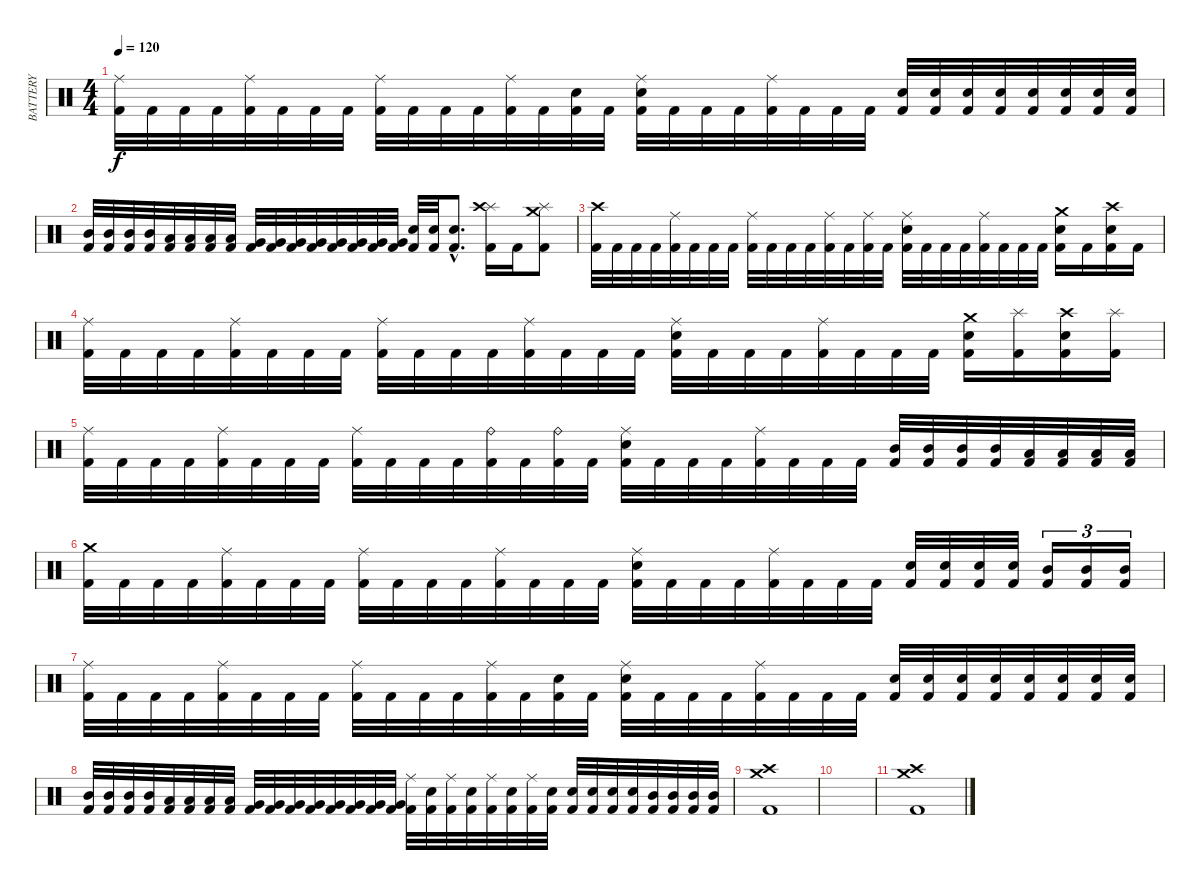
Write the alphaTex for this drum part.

\track ("BATTERY" "BATTERY") {instrument percussion}
\staff {score}
\articulation defaults
\ts (4 4)
\tempo 120
\clef neutral
\ks c
("Kick (hit) 2" "Ride (middle)").32{dy f} "Kick (hit) 2".32 "Kick (hit) 2".32 "Kick (hit) 2".32 ("Kick (hit) 2" "Ride (middle)").32 "Kick (hit) 2".32 "Kick (hit) 2".32 "Kick (hit) 2".32 ("Kick (hit) 2" "Ride (middle)").32 "Kick (hit) 2".32 "Kick (hit) 2".32 "Kick (hit) 2".32 ("Kick (hit) 2" "Ride (middle)").32 "Kick (hit) 2".32 ("Kick (hit) 2" "Snare (hit) 2").32 "Kick (hit) 2".32 ("Kick (hit) 2" "Snare (hit) 2" "Ride (middle)").32 "Kick (hit) 2".32 "Kick (hit) 2".32 "Kick (hit) 2".32 ("Kick (hit) 2" "Ride (middle)").32 "Kick (hit) 2".32 "Kick (hit) 2".32 "Kick (hit) 2".32 ("Kick (hit) 2" "Snare (hit) 2").32 ("Kick (hit) 2" "Snare (hit) 2").32 ("Kick (hit) 2" "Snare (hit) 2").32 ("Kick (hit) 2" "Snare (hit) 2").32 ("Kick (hit) 2" "Snare (hit) 2").32 ("Kick (hit) 2" "Snare (hit) 2").32 ("Kick (hit) 2" "Snare (hit) 2").32 ("Kick (hit) 2" "Snare (hit) 2").32 |
("Kick (hit) 2" "Mid Tom (hit)").32 ("Kick (hit) 2" "Mid Tom (hit)").32 ("Kick (hit) 2" "Mid Tom (hit)").32 ("Kick (hit) 2" "Mid Tom (hit)").32 ("Kick (hit) 2" "Low Tom (hit)").32 ("Kick (hit) 2" "Low Tom (hit)").32 ("Kick (hit) 2" "Low Tom (hit)").32 ("Kick (hit) 2" "Low Tom (hit)").32 ("Kick (hit) 2" "Very Low Tom (hit)").32 ("Kick (hit) 2" "Very Low Tom (hit)").32 ("Kick (hit) 2" "Very Low Tom (hit)").32 ("Kick (hit) 2" "Very Low Tom (hit)").32 ("Kick (hit) 2" "Very Low Tom (hit)").32 ("Kick (hit) 2" "Very Low Tom (hit)").32 ("Kick (hit) 2" "Very Low Tom (hit)").32 ("Kick (hit) 2" "Very Low Tom (hit)").32 ("Kick (hit) 2" "Snare (hit) 2").32 ("Kick (hit) 2" "Snare (hit) 2").32 ("Kick (hit) 2"{hac} "Snare (hit) 2"{hac}).8{d} ("Kick (hit) 2" "Splash (hit)" "Crash high (hit)").16 "Kick (hit) 2".16 ("Kick (hit) 2" "Splash (hit)" "Crash medium (hit)").8 |
("Kick (hit) 2" "Crash high (hit)").32 "Kick (hit) 2".32 "Kick (hit) 2".32 "Kick (hit) 2".32 ("Kick (hit) 2" "Ride (middle)").32 "Kick (hit) 2".32 "Kick (hit) 2".32 "Kick (hit) 2".32 ("Kick (hit) 2" "Ride (middle)").32 "Kick (hit) 2".32 "Kick (hit) 2".32 "Kick (hit) 2".32 ("Kick (hit) 2" "Ride (middle)").32 "Kick (hit) 2".32 ("Kick (hit) 2" "Ride (middle)").32 "Kick (hit) 2".32 ("Kick (hit) 2" "Snare (hit) 2" "Ride (middle)").32 "Kick (hit) 2".32 "Kick (hit) 2".32 "Kick (hit) 2".32 ("Kick (hit) 2" "Ride (middle)").32 "Kick (hit) 2".32 "Kick (hit) 2".32 "Kick (hit) 2".32 ("Kick (hit) 2" "Snare (hit) 2" "Crash medium (hit)").16 "Kick (hit) 2".16 ("Kick (hit) 2" "Snare (hit) 2" "Crash high (hit)").16 "Kick (hit) 2".16 |
("Kick (hit) 2" "Ride (middle)").32 "Kick (hit) 2".32 "Kick (hit) 2".32 "Kick (hit) 2".32 ("Kick (hit) 2" "Ride (middle)").32 "Kick (hit) 2".32 "Kick (hit) 2".32 "Kick (hit) 2".32 ("Kick (hit) 2" "Ride (middle)").32 "Kick (hit) 2".32 "Kick (hit) 2".32 "Kick (hit) 2".32 ("Kick (hit) 2" "Ride (middle)").32 "Kick (hit) 2".32 "Kick (hit) 2".32 "Kick (hit) 2".32 ("Kick (hit) 2" "Snare (hit) 2" "Ride (middle)").32 "Kick (hit) 2".32 "Kick (hit) 2".32 "Kick (hit) 2".32 ("Kick (hit) 2" "Ride (middle)").32 "Kick (hit) 2".32 "Kick (hit) 2".32 "Kick (hit) 2".32 ("Kick (hit) 2" "Snare (hit) 2" "Crash medium (hit)").16 ("Kick (hit) 2" "Splash (hit)").16 ("Kick (hit) 2" "Snare (hit) 2" "Crash high (hit)").16 ("Kick (hit) 2" "Splash (hit)").16 |
("Kick (hit) 2" "Ride (middle)").32 "Kick (hit) 2".32 "Kick (hit) 2".32 "Kick (hit) 2".32 ("Kick (hit) 2" "Ride (middle)").32 "Kick (hit) 2".32 "Kick (hit) 2".32 "Kick (hit) 2".32 ("Kick (hit) 2" "Ride (middle)").32 "Kick (hit) 2".32 "Kick (hit) 2".32 "Kick (hit) 2".32 ("Kick (hit) 2" "Ride (bell)").32 "Kick (hit) 2".32 ("Kick (hit) 2" "Ride (bell)").32 "Kick (hit) 2".32 ("Kick (hit) 2" "Snare (hit) 2" "Ride (middle)").32 "Kick (hit) 2".32 "Kick (hit) 2".32 "Kick (hit) 2".32 ("Kick (hit) 2" "Ride (middle)").32 "Kick (hit) 2".32 "Kick (hit) 2".32 "Kick (hit) 2".32 ("Kick (hit) 2" "Mid Tom (hit)").32 ("Kick (hit) 2" "Mid Tom (hit)").32 ("Kick (hit) 2" "Mid Tom (hit)").32 ("Kick (hit) 2" "Mid Tom (hit)").32 ("Kick (hit) 2" "Low Tom (hit)").32 ("Kick (hit) 2" "Low Tom (hit)").32 ("Kick (hit) 2" "Low Tom (hit)").32 ("Kick (hit) 2" "Low Tom (hit)").32 |
("Kick (hit) 2" "Crash medium (hit)").32 "Kick (hit) 2".32 "Kick (hit) 2".32 "Kick (hit) 2".32 ("Kick (hit) 2" "Ride (middle)").32 "Kick (hit) 2".32 "Kick (hit) 2".32 "Kick (hit) 2".32 ("Kick (hit) 2" "Ride (middle)").32 "Kick (hit) 2".32 "Kick (hit) 2".32 "Kick (hit) 2".32 ("Kick (hit) 2" "Ride (middle)").32 "Kick (hit) 2".32 "Kick (hit) 2".32 "Kick (hit) 2".32 ("Kick (hit) 2" "Snare (hit) 2" "Ride (middle)").32 "Kick (hit) 2".32 "Kick (hit) 2".32 "Kick (hit) 2".32 ("Kick (hit) 2" "Ride (middle)").32 "Kick (hit) 2".32 "Kick (hit) 2".32 "Kick (hit) 2".32 ("Kick (hit) 2" "Snare (hit) 2").32 ("Kick (hit) 2" "Snare (hit) 2").32 ("Kick (hit) 2" "Snare (hit) 2").32 ("Kick (hit) 2" "Snare (hit) 2").32 ("Kick (hit) 2" "Mid Tom (hit)").16{tu (3 2)} ("Kick (hit) 2" "Mid Tom (hit)").16{tu (3 2)} ("Kick (hit) 2" "Mid Tom (hit)").16{tu (3 2)} |
("Kick (hit) 2" "Ride (middle)").32 "Kick (hit) 2".32 "Kick (hit) 2".32 "Kick (hit) 2".32 ("Kick (hit) 2" "Ride (middle)").32 "Kick (hit) 2".32 "Kick (hit) 2".32 "Kick (hit) 2".32 ("Kick (hit) 2" "Ride (middle)").32 "Kick (hit) 2".32 "Kick (hit) 2".32 "Kick (hit) 2".32 ("Kick (hit) 2" "Ride (middle)").32 "Kick (hit) 2".32 ("Kick (hit) 2" "Snare (hit) 2").32 "Kick (hit) 2".32 ("Kick (hit) 2" "Snare (hit) 2" "Ride (middle)").32 "Kick (hit) 2".32 "Kick (hit) 2".32 "Kick (hit) 2".32 ("Kick (hit) 2" "Ride (middle)").32 "Kick (hit) 2".32 "Kick (hit) 2".32 "Kick (hit) 2".32 ("Kick (hit) 2" "Snare (hit) 2").32 ("Kick (hit) 2" "Snare (hit) 2").32 ("Kick (hit) 2" "Snare (hit) 2").32 ("Kick (hit) 2" "Snare (hit) 2").32 ("Kick (hit) 2" "Snare (hit) 2").32 ("Kick (hit) 2" "Snare (hit) 2").32 ("Kick (hit) 2" "Snare (hit) 2").32 ("Kick (hit) 2" "Snare (hit) 2").32 |
("Kick (hit) 2" "Mid Tom (hit)").32 ("Kick (hit) 2" "Mid Tom (hit)").32 ("Kick (hit) 2" "Mid Tom (hit)").32 ("Kick (hit) 2" "Mid Tom (hit)").32 ("Kick (hit) 2" "Low Tom (hit)").32 ("Kick (hit) 2" "Low Tom (hit)").32 ("Kick (hit) 2" "Low Tom (hit)").32 ("Kick (hit) 2" "Low Tom (hit)").32 ("Kick (hit) 2" "Very Low Tom (hit)").32 ("Kick (hit) 2" "Very Low Tom (hit)").32 ("Kick (hit) 2" "Very Low Tom (hit)").32 ("Kick (hit) 2" "Very Low Tom (hit)").32 ("Kick (hit) 2" "Very Low Tom (hit)").32 ("Kick (hit) 2" "Very Low Tom (hit)").32 ("Kick (hit) 2" "Very Low Tom (hit)").32 ("Kick (hit) 2" "Very Low Tom (hit)").32 ("Kick (hit) 2" "Ride (middle)").32 ("Kick (hit) 2" "Snare (hit) 2").32 ("Kick (hit) 2" "Ride (middle)").32 ("Kick (hit) 2" "Snare (hit) 2").32 ("Kick (hit) 2" "Ride (middle)").32 ("Kick (hit) 2" "Snare (hit) 2").32 ("Kick (hit) 2" "Ride (middle)").32 ("Kick (hit) 2" "Snare (hit) 2").32 ("Kick (hit) 2" "Snare (hit) 2").32 ("Kick (hit) 2" "Snare (hit) 2").32 ("Kick (hit) 2" "Snare (hit) 2").32 ("Kick (hit) 2" "Snare (hit) 2").32 ("Kick (hit) 2" "Mid Tom (hit)").32 ("Kick (hit) 2" "Mid Tom (hit)").32 ("Kick (hit) 2" "Mid Tom (hit)").32 ("Kick (hit) 2" "Mid Tom (hit)").32 |
("Kick (hit) 2" "Crash high (hit)" "Crash medium (hit)").1 |
|
("Kick (hit) 2" "Crash high (hit)" "Crash medium (hit)").1
